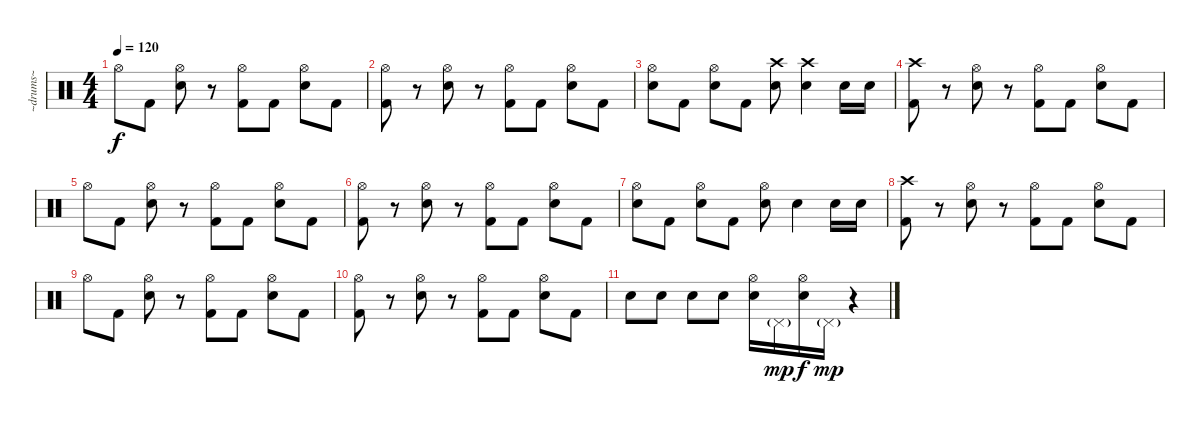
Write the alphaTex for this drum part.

\track ("~drums~" "~drums~") {instrument percussion}
\staff {score}
\articulation defaults
\ts (4 4)
\tempo 120
\clef neutral
\ks c "Hi-Hat (open)".8{dy f} "Kick (hit) 2".8
("Hi-Hat (open)" "Snare (hit) 2").8 r.8 ("Hi-Hat (open)" "Kick (hit) 2").8 "Kick (hit) 2".8 ("Hi-Hat (open)" "Snare (hit) 2").8 "Kick (hit) 2".8 |
("Hi-Hat (open)" "Kick (hit) 2").8 r.8 ("Hi-Hat (open)" "Snare (hit) 2").8 r.8 ("Hi-Hat (open)" "Kick (hit) 2").8 "Kick (hit) 2".8 ("Hi-Hat (open)" "Snare (hit) 2").8 "Kick (hit) 2".8 |
("Hi-Hat (open)" "Snare (hit) 2").8 "Kick (hit) 2".8 ("Hi-Hat (open)" "Snare (hit) 2").8 "Kick (hit) 2".8 ("Crash high (hit)" "Snare (hit) 2").8 ("Crash high (hit)" "Snare (hit) 2").4 "Snare (hit) 2".16 "Snare (hit) 2".16 |
("Crash high (hit)" "Kick (hit) 2").8 r.8 ("Hi-Hat (open)" "Snare (hit) 2").8 r.8 ("Hi-Hat (open)" "Kick (hit) 2").8 "Kick (hit) 2".8 ("Hi-Hat (open)" "Snare (hit) 2").8 "Kick (hit) 2".8 |
"Hi-Hat (open)".8 "Kick (hit) 2".8 ("Hi-Hat (open)" "Snare (hit) 2").8 r.8 ("Hi-Hat (open)" "Kick (hit) 2").8 "Kick (hit) 2".8 ("Hi-Hat (open)" "Snare (hit) 2").8 "Kick (hit) 2".8 |
("Hi-Hat (open)" "Kick (hit) 2").8 r.8 ("Hi-Hat (open)" "Snare (hit) 2").8 r.8 ("Hi-Hat (open)" "Kick (hit) 2").8 "Kick (hit) 2".8 ("Hi-Hat (open)" "Snare (hit) 2").8 "Kick (hit) 2".8 |
("Hi-Hat (open)" "Snare (hit) 2").8 "Kick (hit) 2".8 ("Hi-Hat (open)" "Snare (hit) 2").8 "Kick (hit) 2".8 ("Hi-Hat (open)" "Snare (hit) 2").8 "Snare (hit) 2".4 "Snare (hit) 2".16 "Snare (hit) 2".16 |
("Crash high (hit)" "Kick (hit) 2").8 r.8 ("Hi-Hat (open)" "Snare (hit) 2").8 r.8 ("Hi-Hat (open)" "Kick (hit) 2").8 "Kick (hit) 2".8 ("Hi-Hat (open)" "Snare (hit) 2").8 "Kick (hit) 2".8 |
"Hi-Hat (open)".8 "Kick (hit) 2".8 ("Hi-Hat (open)" "Snare (hit) 2").8 r.8 ("Hi-Hat (open)" "Kick (hit) 2").8 "Kick (hit) 2".8 ("Hi-Hat (open)" "Snare (hit) 2").8 "Kick (hit) 2".8 |
("Hi-Hat (open)" "Kick (hit) 2").8 r.8 ("Hi-Hat (open)" "Snare (hit) 2").8 r.8 ("Hi-Hat (open)" "Kick (hit) 2").8 "Kick (hit) 2".8 ("Hi-Hat (open)" "Snare (hit) 2").8 "Kick (hit) 2".8 |
"Snare (hit) 2".8 "Snare (hit) 2".8 "Snare (hit) 2".8 "Snare (hit) 2".8 ("Hi-Hat (open)" "Snare (hit) 2").16 "Pedal Hi-Hat (hit)"{g}.16{dy mp} ("Hi-Hat (open)" "Snare (hit) 2").16{dy f} "Pedal Hi-Hat (hit)"{g}.16{dy mp} r.4
